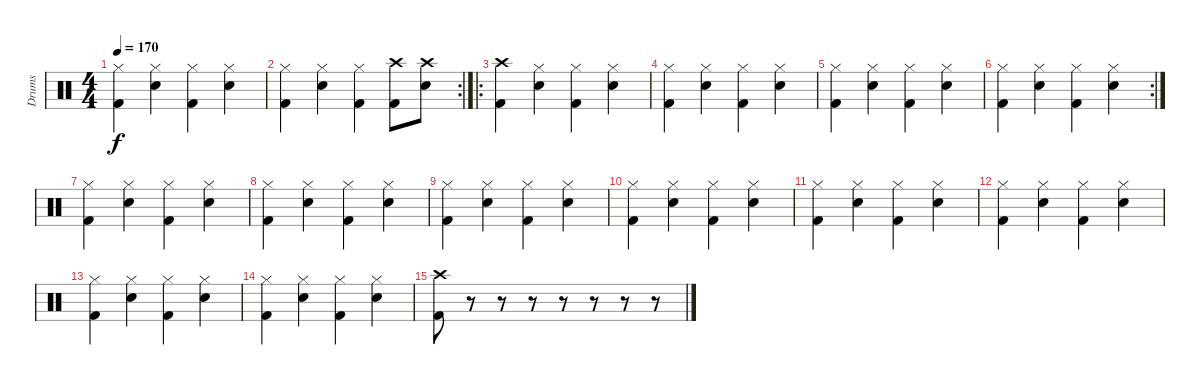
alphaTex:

\track ("Drums" "Drums") {instrument percussion}
\staff {score}
\articulation defaults
\ts (4 4)
\tempo 170
\clef neutral
\ks c
("Hi-Hat (closed)" "Kick (hit) 2").4{dy f} ("Hi-Hat (closed)" "Snare (hit) 2").4 ("Hi-Hat (closed)" "Kick (hit) 2").4 ("Hi-Hat (closed)" "Snare (hit) 2").4 |
\rc 2
("Hi-Hat (closed)" "Kick (hit) 2").4 ("Hi-Hat (closed)" "Snare (hit) 2").4 ("Hi-Hat (closed)" "Kick (hit) 2").4 ("Crash high (hit)" "Kick (hit) 2").8 ("Crash high (hit)" "Snare (hit) 2").8 |
\ro
("Crash high (hit)" "Kick (hit) 2").4 ("Hi-Hat (closed)" "Snare (hit) 2").4 ("Hi-Hat (closed)" "Kick (hit) 2").4 ("Hi-Hat (closed)" "Snare (hit) 2").4 |
("Hi-Hat (closed)" "Kick (hit) 2").4 ("Hi-Hat (closed)" "Snare (hit) 2").4 ("Hi-Hat (closed)" "Kick (hit) 2").4 ("Hi-Hat (closed)" "Snare (hit) 2").4 |
("Hi-Hat (closed)" "Kick (hit) 2").4 ("Hi-Hat (closed)" "Snare (hit) 2").4 ("Hi-Hat (closed)" "Kick (hit) 2").4 ("Hi-Hat (closed)" "Snare (hit) 2").4 |
\rc 2
("Hi-Hat (closed)" "Kick (hit) 2").4 ("Hi-Hat (closed)" "Snare (hit) 2").4 ("Hi-Hat (closed)" "Kick (hit) 2").4 ("Hi-Hat (closed)" "Snare (hit) 2").4 |
("Hi-Hat (closed)" "Kick (hit) 2").4 ("Hi-Hat (closed)" "Snare (hit) 2").4 ("Hi-Hat (closed)" "Kick (hit) 2").4 ("Hi-Hat (closed)" "Snare (hit) 2").4 |
("Hi-Hat (closed)" "Kick (hit) 2").4 ("Hi-Hat (closed)" "Snare (hit) 2").4 ("Hi-Hat (closed)" "Kick (hit) 2").4 ("Hi-Hat (closed)" "Snare (hit) 2").4 |
("Hi-Hat (closed)" "Kick (hit) 2").4 ("Hi-Hat (closed)" "Snare (hit) 2").4 ("Hi-Hat (closed)" "Kick (hit) 2").4 ("Hi-Hat (closed)" "Snare (hit) 2").4 |
("Hi-Hat (closed)" "Kick (hit) 2").4 ("Hi-Hat (closed)" "Snare (hit) 2").4 ("Hi-Hat (closed)" "Kick (hit) 2").4 ("Hi-Hat (closed)" "Snare (hit) 2").4 |
("Hi-Hat (closed)" "Kick (hit) 2").4 ("Hi-Hat (closed)" "Snare (hit) 2").4 ("Hi-Hat (closed)" "Kick (hit) 2").4 ("Hi-Hat (closed)" "Snare (hit) 2").4 |
("Hi-Hat (closed)" "Kick (hit) 2").4 ("Hi-Hat (closed)" "Snare (hit) 2").4 ("Hi-Hat (closed)" "Kick (hit) 2").4 ("Hi-Hat (closed)" "Snare (hit) 2").4 |
("Hi-Hat (closed)" "Kick (hit) 2").4 ("Hi-Hat (closed)" "Snare (hit) 2").4 ("Hi-Hat (closed)" "Kick (hit) 2").4 ("Hi-Hat (closed)" "Snare (hit) 2").4 |
("Hi-Hat (closed)" "Kick (hit) 2").4 ("Hi-Hat (closed)" "Snare (hit) 2").4 ("Hi-Hat (closed)" "Kick (hit) 2").4 ("Hi-Hat (closed)" "Snare (hit) 2").4 |
("Crash high (hit)" "Kick (hit) 2").8 r.8 r.8 r.8 r.8 r.8 r.8 r.8
